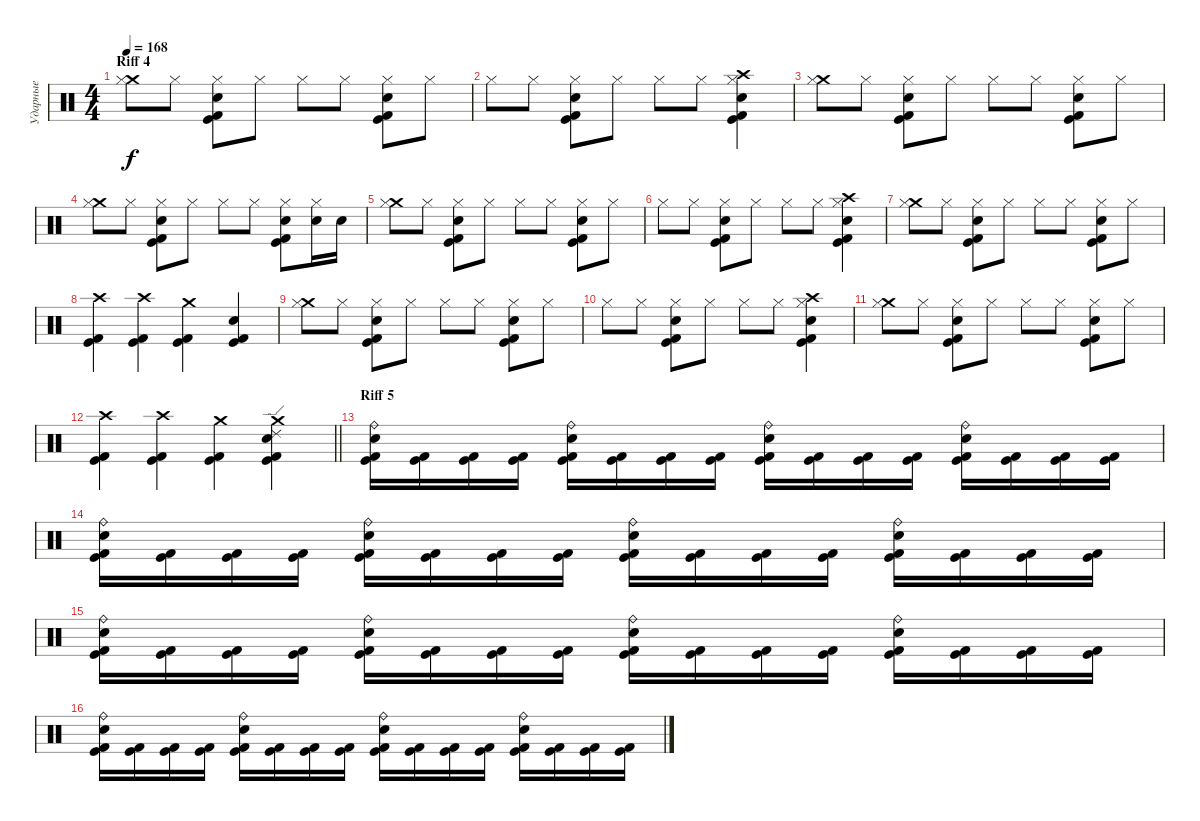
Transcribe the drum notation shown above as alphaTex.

\track ("Ударные" "Ударные") {instrument percussion}
\staff {score}
\articulation defaults
\ts (4 4)
\section ("" "Riff 4")
\tempo 168
\clef neutral
\ks c
("Crash medium (hit)" "Hi-Hat (closed)").8{dy f} "Hi-Hat (closed)".8 ("Hi-Hat (closed)" "Electric Snare (hit)" "Kick (hit)" "Kick (hit) 2").8 "Hi-Hat (closed)".8 "Hi-Hat (closed)".8 "Hi-Hat (closed)".8 ("Hi-Hat (closed)" "Electric Snare (hit)" "Kick (hit)" "Kick (hit) 2").8 "Hi-Hat (closed)".8 |
"Hi-Hat (closed)".8 "Hi-Hat (closed)".8 ("Hi-Hat (closed)" "Electric Snare (hit)" "Kick (hit)" "Kick (hit) 2").8 "Hi-Hat (closed)".8 "Hi-Hat (closed)".8 "Hi-Hat (closed)".8 ("Crash high (hit)" "Hi-Hat (closed)" "Electric Snare (hit)" "Kick (hit)" "Kick (hit) 2").4 |
("Crash medium (hit)" "Hi-Hat (closed)").8 "Hi-Hat (closed)".8 ("Hi-Hat (closed)" "Electric Snare (hit)" "Kick (hit)" "Kick (hit) 2").8 "Hi-Hat (closed)".8 "Hi-Hat (closed)".8 "Hi-Hat (closed)".8 ("Hi-Hat (closed)" "Electric Snare (hit)" "Kick (hit)" "Kick (hit) 2").8 "Hi-Hat (closed)".8 |
("Crash medium (hit)" "Hi-Hat (closed)").8 "Hi-Hat (closed)".8 ("Hi-Hat (closed)" "Electric Snare (hit)" "Kick (hit)" "Kick (hit) 2").8 "Hi-Hat (closed)".8 "Hi-Hat (closed)".8 "Hi-Hat (closed)".8 ("Hi-Hat (closed)" "Electric Snare (hit)" "Kick (hit)" "Kick (hit) 2").8 ("Hi-Hat (closed)" "Electric Snare (hit)").16 "Electric Snare (hit)".16 |
("Crash medium (hit)" "Hi-Hat (closed)").8 "Hi-Hat (closed)".8 ("Hi-Hat (closed)" "Electric Snare (hit)" "Kick (hit)" "Kick (hit) 2").8 "Hi-Hat (closed)".8 "Hi-Hat (closed)".8 "Hi-Hat (closed)".8 ("Hi-Hat (closed)" "Electric Snare (hit)" "Kick (hit)" "Kick (hit) 2").8 "Hi-Hat (closed)".8 |
"Hi-Hat (closed)".8 "Hi-Hat (closed)".8 ("Hi-Hat (closed)" "Electric Snare (hit)" "Kick (hit)" "Kick (hit) 2").8 "Hi-Hat (closed)".8 "Hi-Hat (closed)".8 "Hi-Hat (closed)".8 ("Crash high (hit)" "Hi-Hat (closed)" "Electric Snare (hit)" "Kick (hit)" "Kick (hit) 2").4 |
("Crash medium (hit)" "Hi-Hat (closed)").8 "Hi-Hat (closed)".8 ("Hi-Hat (closed)" "Electric Snare (hit)" "Kick (hit)" "Kick (hit) 2").8 "Hi-Hat (closed)".8 "Hi-Hat (closed)".8 "Hi-Hat (closed)".8 ("Hi-Hat (closed)" "Electric Snare (hit)" "Kick (hit)" "Kick (hit) 2").8 "Hi-Hat (closed)".8 |
("Crash high (hit)" "Kick (hit)" "Kick (hit) 2").4 ("Crash high (hit)" "Kick (hit)" "Kick (hit) 2").4 ("Crash medium (hit)" "Kick (hit)" "Kick (hit) 2").4 ("Electric Snare (hit)" "Kick (hit)" "Kick (hit) 2").4 |
("Crash medium (hit)" "Hi-Hat (closed)").8 "Hi-Hat (closed)".8 ("Hi-Hat (closed)" "Electric Snare (hit)" "Kick (hit)" "Kick (hit) 2").8 "Hi-Hat (closed)".8 "Hi-Hat (closed)".8 "Hi-Hat (closed)".8 ("Hi-Hat (closed)" "Electric Snare (hit)" "Kick (hit)" "Kick (hit) 2").8 "Hi-Hat (closed)".8 |
"Hi-Hat (closed)".8 "Hi-Hat (closed)".8 ("Hi-Hat (closed)" "Electric Snare (hit)" "Kick (hit)" "Kick (hit) 2").8 "Hi-Hat (closed)".8 "Hi-Hat (closed)".8 "Hi-Hat (closed)".8 ("Crash high (hit)" "Hi-Hat (closed)" "Electric Snare (hit)" "Kick (hit)" "Kick (hit) 2").4 |
("Crash medium (hit)" "Hi-Hat (closed)").8 "Hi-Hat (closed)".8 ("Hi-Hat (closed)" "Electric Snare (hit)" "Kick (hit)" "Kick (hit) 2").8 "Hi-Hat (closed)".8 "Hi-Hat (closed)".8 "Hi-Hat (closed)".8 ("Hi-Hat (closed)" "Electric Snare (hit)" "Kick (hit)" "Kick (hit) 2").8 "Hi-Hat (closed)".8 |
\barLineRight lightlight
("Crash high (hit)" "Kick (hit)" "Kick (hit) 2").4 ("Crash high (hit)" "Kick (hit)" "Kick (hit) 2").4 ("Crash medium (hit)" "Kick (hit)" "Kick (hit) 2").4 ("Crash medium (hit)" "Ride (edge) 2" "Electric Snare (hit)" "Kick (hit)" "Kick (hit) 2").4 |
\section ("" "Riff 5")
("Ride (bell)" "Electric Snare (hit)" "Kick (hit)" "Kick (hit) 2").16 ("Kick (hit)" "Kick (hit) 2").16 ("Kick (hit)" "Kick (hit) 2").16 ("Kick (hit)" "Kick (hit) 2").16 ("Ride (bell)" "Electric Snare (hit)" "Kick (hit)" "Kick (hit) 2").16 ("Kick (hit)" "Kick (hit) 2").16 ("Kick (hit)" "Kick (hit) 2").16 ("Kick (hit)" "Kick (hit) 2").16 ("Ride (bell)" "Electric Snare (hit)" "Kick (hit)" "Kick (hit) 2").16 ("Kick (hit)" "Kick (hit) 2").16 ("Kick (hit)" "Kick (hit) 2").16 ("Kick (hit)" "Kick (hit) 2").16 ("Ride (bell)" "Electric Snare (hit)" "Kick (hit)" "Kick (hit) 2").16 ("Kick (hit)" "Kick (hit) 2").16 ("Kick (hit)" "Kick (hit) 2").16 ("Kick (hit)" "Kick (hit) 2").16 |
("Ride (bell)" "Electric Snare (hit)" "Kick (hit)" "Kick (hit) 2").16 ("Kick (hit)" "Kick (hit) 2").16 ("Kick (hit)" "Kick (hit) 2").16 ("Kick (hit)" "Kick (hit) 2").16 ("Ride (bell)" "Electric Snare (hit)" "Kick (hit)" "Kick (hit) 2").16 ("Kick (hit)" "Kick (hit) 2").16 ("Kick (hit)" "Kick (hit) 2").16 ("Kick (hit)" "Kick (hit) 2").16 ("Ride (bell)" "Electric Snare (hit)" "Kick (hit)" "Kick (hit) 2").16 ("Kick (hit)" "Kick (hit) 2").16 ("Kick (hit)" "Kick (hit) 2").16 ("Kick (hit)" "Kick (hit) 2").16 ("Ride (bell)" "Electric Snare (hit)" "Kick (hit)" "Kick (hit) 2").16 ("Kick (hit)" "Kick (hit) 2").16 ("Kick (hit)" "Kick (hit) 2").16 ("Kick (hit)" "Kick (hit) 2").16 |
("Ride (bell)" "Electric Snare (hit)" "Kick (hit)" "Kick (hit) 2").16 ("Kick (hit)" "Kick (hit) 2").16 ("Kick (hit)" "Kick (hit) 2").16 ("Kick (hit)" "Kick (hit) 2").16 ("Ride (bell)" "Electric Snare (hit)" "Kick (hit)" "Kick (hit) 2").16 ("Kick (hit)" "Kick (hit) 2").16 ("Kick (hit)" "Kick (hit) 2").16 ("Kick (hit)" "Kick (hit) 2").16 ("Ride (bell)" "Electric Snare (hit)" "Kick (hit)" "Kick (hit) 2").16 ("Kick (hit)" "Kick (hit) 2").16 ("Kick (hit)" "Kick (hit) 2").16 ("Kick (hit)" "Kick (hit) 2").16 ("Ride (bell)" "Electric Snare (hit)" "Kick (hit)" "Kick (hit) 2").16 ("Kick (hit)" "Kick (hit) 2").16 ("Kick (hit)" "Kick (hit) 2").16 ("Kick (hit)" "Kick (hit) 2").16 |
("Ride (bell)" "Electric Snare (hit)" "Kick (hit)" "Kick (hit) 2").16 ("Kick (hit)" "Kick (hit) 2").16 ("Kick (hit)" "Kick (hit) 2").16 ("Kick (hit)" "Kick (hit) 2").16 ("Ride (bell)" "Electric Snare (hit)" "Kick (hit)" "Kick (hit) 2").16 ("Kick (hit)" "Kick (hit) 2").16 ("Kick (hit)" "Kick (hit) 2").16 ("Kick (hit)" "Kick (hit) 2").16 ("Ride (bell)" "Electric Snare (hit)" "Kick (hit)" "Kick (hit) 2").16 ("Kick (hit)" "Kick (hit) 2").16 ("Kick (hit)" "Kick (hit) 2").16 ("Kick (hit)" "Kick (hit) 2").16 ("Ride (bell)" "Electric Snare (hit)" "Kick (hit)" "Kick (hit) 2").16 ("Kick (hit)" "Kick (hit) 2").16 ("Kick (hit)" "Kick (hit) 2").16 ("Kick (hit)" "Kick (hit) 2").16
